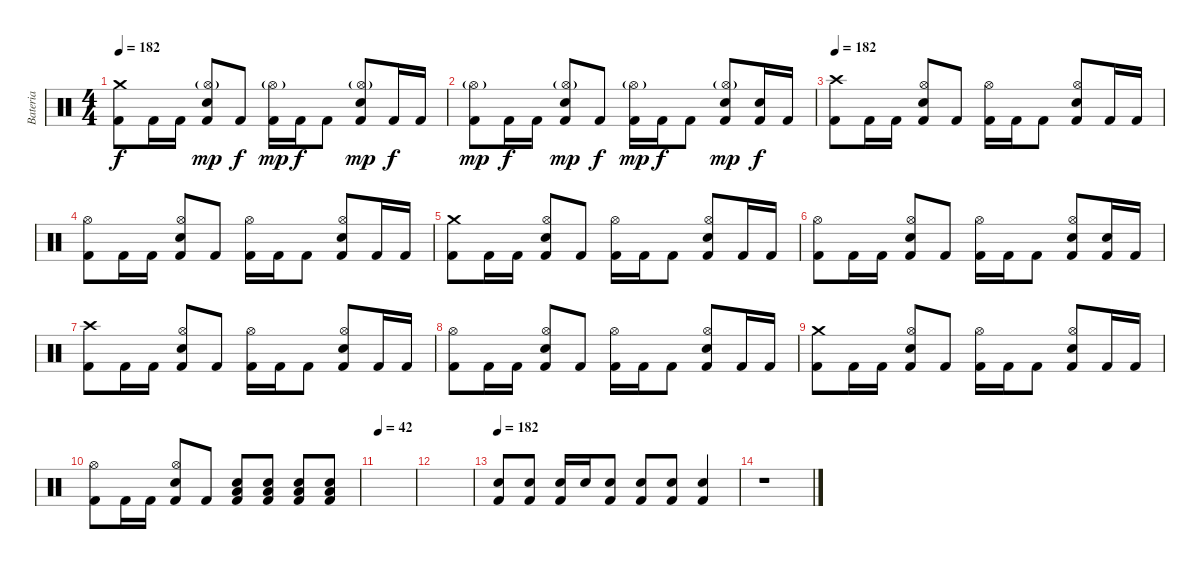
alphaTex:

\track ("Bateria" "Bateria") {instrument percussion}
\staff {score}
\articulation defaults
\ts (4 4)
\tempo 182
\clef neutral
\ks c
("Crash medium (hit)" "Kick (hit) 2").8{dy f} "Kick (hit) 2".16 "Kick (hit) 2".16 ("Hi-Hat (open)"{g} "Snare (hit) 2" "Kick (hit) 2").8{dy mp} "Kick (hit) 2".8{dy f} ("Hi-Hat (open)"{g} "Kick (hit) 2").16{dy mp} "Kick (hit) 2".16{dy f} "Kick (hit) 2".8 ("Hi-Hat (open)"{g} "Snare (hit) 2" "Kick (hit) 2").8{dy mp} "Kick (hit) 2".16{dy f} "Kick (hit) 2".16 |
("Hi-Hat (open)"{g} "Kick (hit) 2").8{dy mp} "Kick (hit) 2".16{dy f} "Kick (hit) 2".16 ("Hi-Hat (open)"{g} "Snare (hit) 2" "Kick (hit) 2").8{dy mp} "Kick (hit) 2".8{dy f} ("Hi-Hat (open)"{g} "Kick (hit) 2").16{dy mp} "Kick (hit) 2".16{dy f} "Kick (hit) 2".8 ("Hi-Hat (open)"{g} "Snare (hit) 2" "Kick (hit) 2").8{dy mp} ("Snare (hit) 2" "Kick (hit) 2").16{dy f} "Kick (hit) 2".16 |
\tempo 182
("Crash high (hit)" "Kick (hit) 2").8 "Kick (hit) 2".16 "Kick (hit) 2".16 ("Hi-Hat (open)" "Snare (hit) 2" "Kick (hit) 2").8 "Kick (hit) 2".8 ("Hi-Hat (open)" "Kick (hit) 2").16 "Kick (hit) 2".16 "Kick (hit) 2".8 ("Hi-Hat (open)" "Snare (hit) 2" "Kick (hit) 2").8 "Kick (hit) 2".16 "Kick (hit) 2".16 |
("Hi-Hat (open)" "Kick (hit) 2").8 "Kick (hit) 2".16 "Kick (hit) 2".16 ("Hi-Hat (open)" "Snare (hit) 2" "Kick (hit) 2").8 "Kick (hit) 2".8 ("Hi-Hat (open)" "Kick (hit) 2").16 "Kick (hit) 2".16 "Kick (hit) 2".8 ("Hi-Hat (open)" "Snare (hit) 2" "Kick (hit) 2").8 "Kick (hit) 2".16 "Kick (hit) 2".16 |
("Crash medium (hit)" "Kick (hit) 2").8 "Kick (hit) 2".16 "Kick (hit) 2".16 ("Hi-Hat (open)" "Snare (hit) 2" "Kick (hit) 2").8 "Kick (hit) 2".8 ("Hi-Hat (open)" "Kick (hit) 2").16 "Kick (hit) 2".16 "Kick (hit) 2".8 ("Hi-Hat (open)" "Snare (hit) 2" "Kick (hit) 2").8 "Kick (hit) 2".16 "Kick (hit) 2".16 |
("Hi-Hat (open)" "Kick (hit) 2").8 "Kick (hit) 2".16 "Kick (hit) 2".16 ("Hi-Hat (open)" "Snare (hit) 2" "Kick (hit) 2").8 "Kick (hit) 2".8 ("Hi-Hat (open)" "Kick (hit) 2").16 "Kick (hit) 2".16 "Kick (hit) 2".8 ("Hi-Hat (open)" "Snare (hit) 2" "Kick (hit) 2").8 ("Snare (hit) 2" "Kick (hit) 2").16 "Kick (hit) 2".16 |
("Crash high (hit)" "Kick (hit) 2").8 "Kick (hit) 2".16 "Kick (hit) 2".16 ("Hi-Hat (open)" "Snare (hit) 2" "Kick (hit) 2").8 "Kick (hit) 2".8 ("Hi-Hat (open)" "Kick (hit) 2").16 "Kick (hit) 2".16 "Kick (hit) 2".8 ("Hi-Hat (open)" "Snare (hit) 2" "Kick (hit) 2").8 "Kick (hit) 2".16 "Kick (hit) 2".16 |
("Hi-Hat (open)" "Kick (hit) 2").8 "Kick (hit) 2".16 "Kick (hit) 2".16 ("Hi-Hat (open)" "Snare (hit) 2" "Kick (hit) 2").8 "Kick (hit) 2".8 ("Hi-Hat (open)" "Kick (hit) 2").16 "Kick (hit) 2".16 "Kick (hit) 2".8 ("Hi-Hat (open)" "Snare (hit) 2" "Kick (hit) 2").8 "Kick (hit) 2".16 "Kick (hit) 2".16 |
("Crash medium (hit)" "Kick (hit) 2").8 "Kick (hit) 2".16 "Kick (hit) 2".16 ("Hi-Hat (open)" "Snare (hit) 2" "Kick (hit) 2").8 "Kick (hit) 2".8 ("Hi-Hat (open)" "Kick (hit) 2").16 "Kick (hit) 2".16 "Kick (hit) 2".8 ("Hi-Hat (open)" "Snare (hit) 2" "Kick (hit) 2").8 "Kick (hit) 2".16 "Kick (hit) 2".16 |
("Hi-Hat (open)" "Kick (hit) 2").8 "Kick (hit) 2".16 "Kick (hit) 2".16 ("Hi-Hat (open)" "Snare (hit) 2" "Kick (hit) 2").8 "Kick (hit) 2".8 ("Low Tom (hit)" "Snare (hit) 2" "Kick (hit) 2").8 ("Low Tom (hit)" "Snare (hit) 2" "Kick (hit) 2").8 ("Low Tom (hit)" "Snare (hit) 2" "Kick (hit) 2").8 ("Low Tom (hit)" "Snare (hit) 2" "Kick (hit) 2").8 |
\tempo 42
|
|
\tempo 182
("Snare (hit) 2" "Kick (hit) 2").8 ("Snare (hit) 2" "Kick (hit) 2").8 ("Snare (hit) 2" "Kick (hit) 2").16 "Snare (hit) 2".16 ("Snare (hit) 2" "Kick (hit) 2").8 ("Snare (hit) 2" "Kick (hit) 2").8 ("Snare (hit) 2" "Kick (hit) 2").8 ("Snare (hit) 2" "Kick (hit) 2").4 |
r.1
